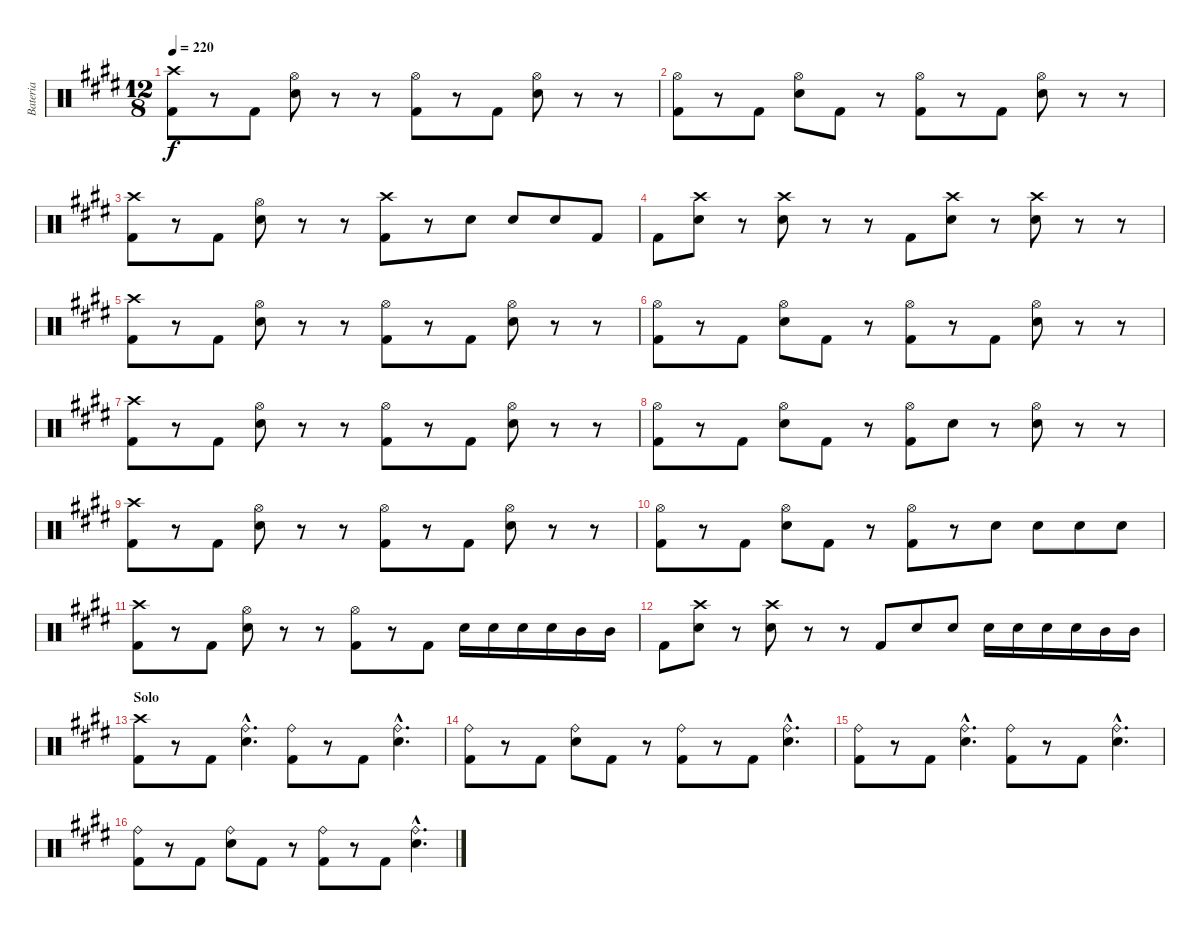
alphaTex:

\track ("Bateria" "Bateria") {instrument percussion}
\staff {score}
\articulation defaults
\ts (12 8)
\tempo 220
\clef neutral
\ks e
("Crash high (hit)" "Kick (hit) 2").8{dy f} r.8 "Kick (hit) 2".8 ("Hi-Hat (open)" "Electric Snare (hit)").8 r.8 r.8 ("Hi-Hat (open)" "Kick (hit) 2").8 r.8 "Kick (hit) 2".8 ("Hi-Hat (open)" "Electric Snare (hit)").8 r.8 r.8 |
("Hi-Hat (open)" "Kick (hit) 2").8 r.8 "Kick (hit) 2".8 ("Hi-Hat (open)" "Electric Snare (hit)").8 "Kick (hit) 2".8 r.8 ("Hi-Hat (open)" "Kick (hit) 2").8 r.8 "Kick (hit) 2".8 ("Hi-Hat (open)" "Electric Snare (hit)").8 r.8 r.8 |
("Crash high (hit)" "Kick (hit) 2").8 r.8 "Kick (hit) 2".8 ("Hi-Hat (open)" "Electric Snare (hit)").8 r.8 r.8 ("Crash high (hit)" "Kick (hit) 2").8 r.8 "Electric Snare (hit)".8 "Electric Snare (hit)".8 "Electric Snare (hit)".8 "Kick (hit) 2".8 |
"Kick (hit) 2".8 ("Crash high (hit)" "Electric Snare (hit)").8 r.8 ("Crash high (hit)" "Electric Snare (hit)").8 r.8 r.8 "Kick (hit) 2".8 ("Crash high (hit)" "Electric Snare (hit)").8 r.8 ("Crash high (hit)" "Electric Snare (hit)").8 r.8 r.8 |
("Crash high (hit)" "Kick (hit) 2").8 r.8 "Kick (hit) 2".8 ("Hi-Hat (open)" "Electric Snare (hit)").8 r.8 r.8 ("Hi-Hat (open)" "Kick (hit) 2").8 r.8 "Kick (hit) 2".8 ("Hi-Hat (open)" "Electric Snare (hit)").8 r.8 r.8 |
("Hi-Hat (open)" "Kick (hit) 2").8 r.8 "Kick (hit) 2".8 ("Hi-Hat (open)" "Electric Snare (hit)").8 "Kick (hit) 2".8 r.8 ("Hi-Hat (open)" "Kick (hit) 2").8 r.8 "Kick (hit) 2".8 ("Hi-Hat (open)" "Electric Snare (hit)").8 r.8 r.8 |
("Crash high (hit)" "Kick (hit) 2").8 r.8 "Kick (hit) 2".8 ("Hi-Hat (open)" "Electric Snare (hit)").8 r.8 r.8 ("Hi-Hat (open)" "Kick (hit) 2").8 r.8 "Kick (hit) 2".8 ("Hi-Hat (open)" "Electric Snare (hit)").8 r.8 r.8 |
("Hi-Hat (open)" "Kick (hit) 2").8 r.8 "Kick (hit) 2".8 ("Hi-Hat (open)" "Electric Snare (hit)").8 "Kick (hit) 2".8 r.8 ("Hi-Hat (open)" "Kick (hit) 2").8 "Electric Snare (hit)".8 r.8 ("Hi-Hat (open)" "Electric Snare (hit)").8 r.8 r.8 |
("Crash high (hit)" "Kick (hit) 2").8 r.8 "Kick (hit) 2".8 ("Hi-Hat (open)" "Electric Snare (hit)").8 r.8 r.8 ("Hi-Hat (open)" "Kick (hit) 2").8 r.8 "Kick (hit) 2".8 ("Hi-Hat (open)" "Electric Snare (hit)").8 r.8 r.8 |
("Hi-Hat (open)" "Kick (hit) 2").8 r.8 "Kick (hit) 2".8 ("Hi-Hat (open)" "Electric Snare (hit)").8 "Kick (hit) 2".8 r.8 ("Hi-Hat (open)" "Kick (hit) 2").8 r.8 "Electric Snare (hit)".8 "Electric Snare (hit)".8 "Electric Snare (hit)".8 "Electric Snare (hit)".8 |
("Crash high (hit)" "Kick (hit) 2").8 r.8 "Kick (hit) 2".8 ("Hi-Hat (open)" "Electric Snare (hit)").8 r.8 r.8 ("Hi-Hat (open)" "Kick (hit) 2").8 r.8 "Kick (hit) 2".8 "Electric Snare (hit)".16 "Electric Snare (hit)".16 "Electric Snare (hit)".16 "Electric Snare (hit)".16 "Mid Tom (hit)".16 "Mid Tom (hit)".16 |
"Kick (hit) 2".8 ("Crash high (hit)" "Electric Snare (hit)").8 r.8 ("Crash high (hit)" "Electric Snare (hit)").8 r.8 r.8 "Kick (hit) 2".8 "Electric Snare (hit)".8 "Electric Snare (hit)".8 "Electric Snare (hit)".16 "Electric Snare (hit)".16 "Electric Snare (hit)".16 "Electric Snare (hit)".16 "Mid Tom (hit)".16 "Mid Tom (hit)".16 |
\section ("" "Solo")
("Crash high (hit)" "Kick (hit) 2").8 r.8 "Kick (hit) 2".8 ("Ride (bell)"{hac} "Electric Snare (hit)"{hac}).4{d} ("Ride (bell)" "Kick (hit) 2").8 r.8 "Kick (hit) 2".8 ("Ride (bell)"{hac} "Electric Snare (hit)"{hac}).4{d} |
("Ride (bell)" "Kick (hit) 2").8 r.8 "Kick (hit) 2".8 ("Ride (bell)" "Electric Snare (hit)").8 "Kick (hit) 2".8 r.8 ("Ride (bell)" "Kick (hit) 2").8 r.8 "Kick (hit) 2".8 ("Ride (bell)"{hac} "Electric Snare (hit)"{hac}).4{d} |
("Ride (bell)" "Kick (hit) 2").8 r.8 "Kick (hit) 2".8 ("Ride (bell)"{hac} "Electric Snare (hit)"{hac}).4{d} ("Ride (bell)" "Kick (hit) 2").8 r.8 "Kick (hit) 2".8 ("Ride (bell)"{hac} "Electric Snare (hit)"{hac}).4{d} |
("Ride (bell)" "Kick (hit) 2").8 r.8 "Kick (hit) 2".8 ("Ride (bell)" "Electric Snare (hit)").8 "Kick (hit) 2".8 r.8 ("Ride (bell)" "Kick (hit) 2").8 r.8 "Kick (hit) 2".8 ("Ride (bell)"{hac} "Electric Snare (hit)"{hac}).4{d}
